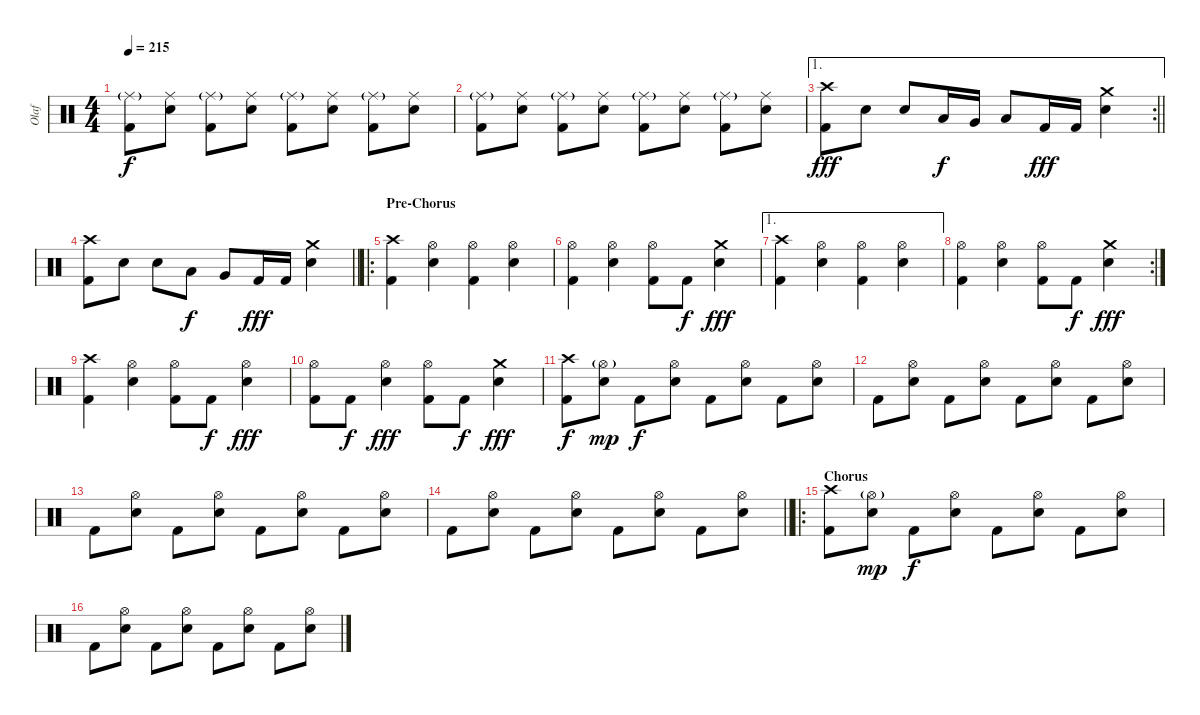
\track ("Olaf" "Olaf") {instrument percussion}
\staff {score}
\articulation defaults
\ts (4 4)
\tempo 215
\clef neutral
\ks c
("Ride (middle)"{g} "Kick (hit) 2").8{dy f} ("Ride (middle)" "Electric Snare (hit)").8 ("Ride (middle)"{g} "Kick (hit) 2").8 ("Ride (middle)" "Electric Snare (hit)").8 ("Ride (middle)"{g} "Kick (hit) 2").8 ("Ride (middle)" "Electric Snare (hit)").8 ("Ride (middle)"{g} "Kick (hit) 2").8 ("Ride (middle)" "Electric Snare (hit)").8 |
("Ride (middle)"{g} "Kick (hit) 2").8 ("Ride (middle)" "Electric Snare (hit)").8 ("Ride (middle)"{g} "Kick (hit) 2").8 ("Ride (middle)" "Electric Snare (hit)").8 ("Ride (middle)"{g} "Kick (hit) 2").8 ("Ride (middle)" "Electric Snare (hit)").8 ("Ride (middle)"{g} "Kick (hit) 2").8 ("Ride (middle)" "Electric Snare (hit)").8 |
\ae 1
\rc 2
\barLineRight lightlight
("Crash high (hit)" "Kick (hit) 2").8{dy fff} "Electric Snare (hit)".8 "Electric Snare (hit)".8 "Low Tom (hit)".16{dy f} "Very Low Tom (hit)".16 "Low Floor Tom (hit)".8 "Kick (hit) 2".16{dy fff} "Kick (hit) 2".16 ("Crash medium (hit)" "Electric Snare (hit)").4 |
\barLineRight lightlight
("Crash high (hit)" "Kick (hit) 2").8 "Electric Snare (hit)".8 "Electric Snare (hit)".8 "Low Tom (hit)".8{dy f} "Very Low Tom (hit)".8 "Kick (hit) 2".16{dy fff} "Kick (hit) 2".16 ("Crash medium (hit)" "Electric Snare (hit)").4 |
\ro
\section ("" "Pre-Chorus")
("Crash high (hit)" "Kick (hit) 2").4 ("Hi-Hat (open)" "Electric Snare (hit)").4 ("Hi-Hat (open)" "Kick (hit) 2").4 ("Hi-Hat (open)" "Electric Snare (hit)").4 |
("Hi-Hat (open)" "Kick (hit) 2").4 ("Hi-Hat (open)" "Electric Snare (hit)").4 ("Hi-Hat (open)" "Kick (hit) 2").8 "Kick (hit) 2".8{dy f} ("Crash medium (hit)" "Electric Snare (hit)").4{dy fff} |
\ae 1
("Crash high (hit)" "Kick (hit) 2").4 ("Hi-Hat (open)" "Electric Snare (hit)").4 ("Hi-Hat (open)" "Kick (hit) 2").4 ("Hi-Hat (open)" "Electric Snare (hit)").4 |
\rc 2
("Hi-Hat (open)" "Kick (hit) 2").4 ("Hi-Hat (open)" "Electric Snare (hit)").4 ("Hi-Hat (open)" "Kick (hit) 2").8 "Kick (hit) 2".8{dy f} ("Crash medium (hit)" "Electric Snare (hit)").4{dy fff} |
("Crash high (hit)" "Kick (hit) 2").4 ("Hi-Hat (open)" "Electric Snare (hit)").4 ("Hi-Hat (open)" "Kick (hit) 2").8 "Kick (hit) 2".8{dy f} ("Hi-Hat (open)" "Electric Snare (hit)").4{dy fff} |
("Hi-Hat (open)" "Kick (hit) 2").8 "Kick (hit) 2".8{dy f} ("Hi-Hat (open)" "Electric Snare (hit)").4{dy fff} ("Hi-Hat (open)" "Kick (hit) 2").8 "Kick (hit) 2".8{dy f} ("Crash medium (hit)" "Electric Snare (hit)").4{dy fff} |
("Crash high (hit)" "Kick (hit) 2").8{dy f} ("Hi-Hat (open)"{g} "Electric Snare (hit)").8{dy mp} "Kick (hit) 2".8{dy f} ("Hi-Hat (open)" "Electric Snare (hit)").8 "Kick (hit) 2".8 ("Hi-Hat (open)" "Electric Snare (hit)").8 "Kick (hit) 2".8 ("Hi-Hat (open)" "Electric Snare (hit)").8 |
"Kick (hit) 2".8 ("Hi-Hat (open)" "Electric Snare (hit)").8 "Kick (hit) 2".8 ("Hi-Hat (open)" "Electric Snare (hit)").8 "Kick (hit) 2".8 ("Hi-Hat (open)" "Electric Snare (hit)").8 "Kick (hit) 2".8 ("Hi-Hat (open)" "Electric Snare (hit)").8 |
"Kick (hit) 2".8 ("Hi-Hat (open)" "Electric Snare (hit)").8 "Kick (hit) 2".8 ("Hi-Hat (open)" "Electric Snare (hit)").8 "Kick (hit) 2".8 ("Hi-Hat (open)" "Electric Snare (hit)").8 "Kick (hit) 2".8 ("Hi-Hat (open)" "Electric Snare (hit)").8 |
\barLineRight lightlight "Kick (hit) 2".8
("Hi-Hat (open)" "Electric Snare (hit)").8 "Kick (hit) 2".8 ("Hi-Hat (open)" "Electric Snare (hit)").8 "Kick (hit) 2".8 ("Hi-Hat (open)" "Electric Snare (hit)").8 "Kick (hit) 2".8 ("Hi-Hat (open)" "Electric Snare (hit)").8 |
\ro
\section ("" "Chorus")
("Crash high (hit)" "Kick (hit) 2").8 ("Hi-Hat (open)"{g} "Electric Snare (hit)").8{dy mp} "Kick (hit) 2".8{dy f} ("Hi-Hat (open)" "Electric Snare (hit)").8 "Kick (hit) 2".8 ("Hi-Hat (open)" "Electric Snare (hit)").8 "Kick (hit) 2".8 ("Hi-Hat (open)" "Electric Snare (hit)").8 |
"Kick (hit) 2".8 ("Hi-Hat (open)" "Electric Snare (hit)").8 "Kick (hit) 2".8 ("Hi-Hat (open)" "Electric Snare (hit)").8 "Kick (hit) 2".8 ("Hi-Hat (open)" "Electric Snare (hit)").8 "Kick (hit) 2".8 ("Hi-Hat (open)" "Electric Snare (hit)").8
